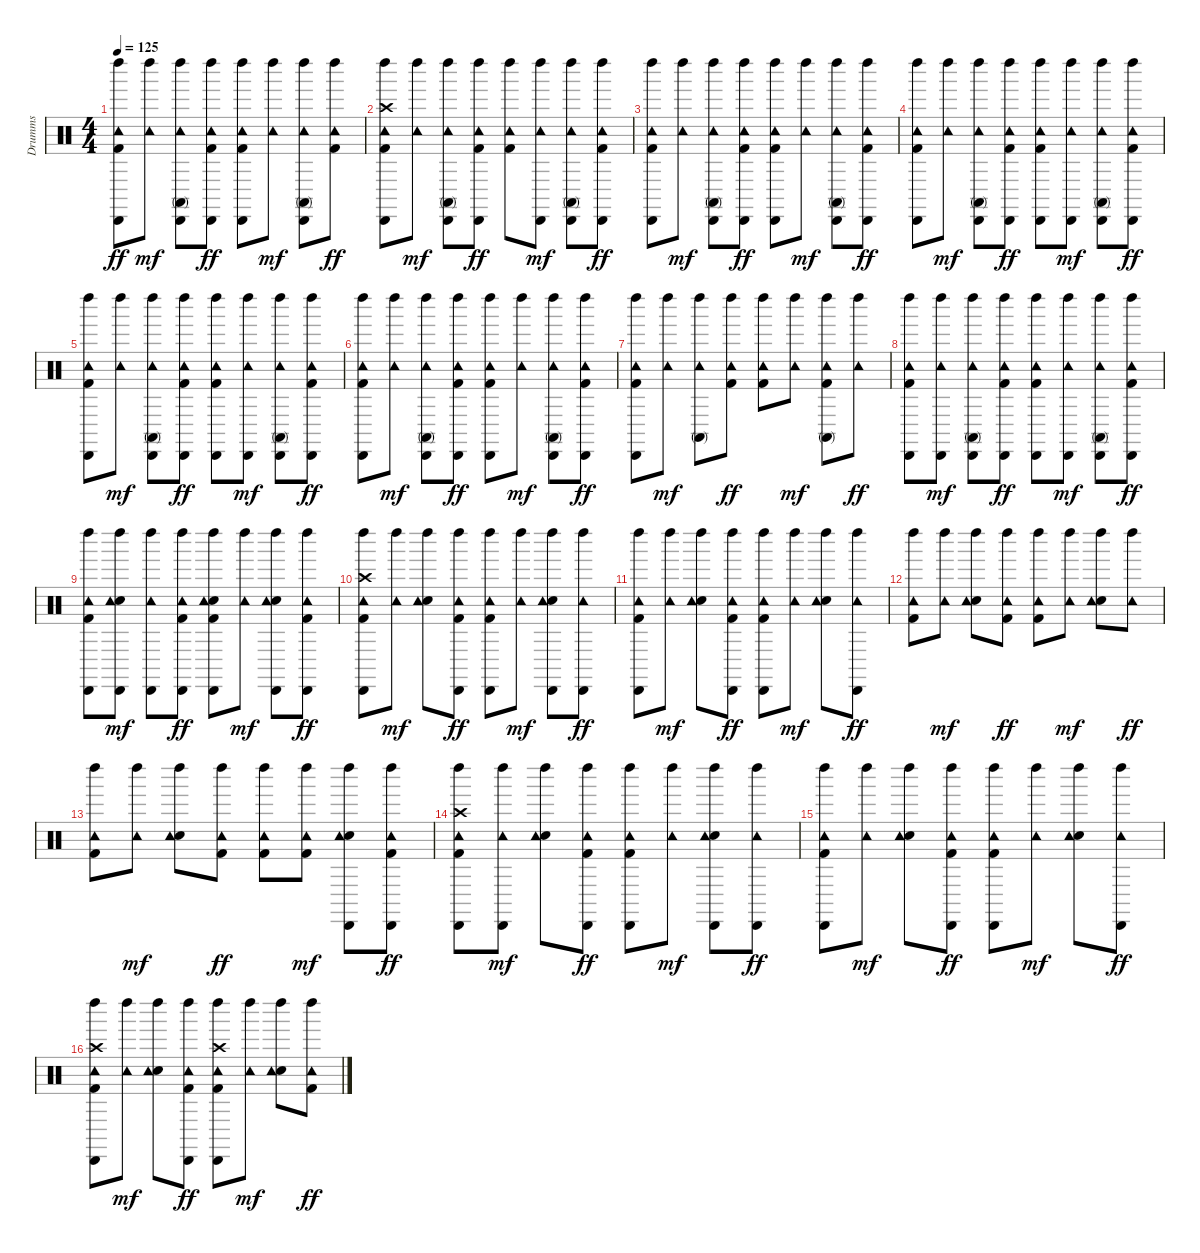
\track ("Drumms" "Drumms") {instrument percussion}
\staff {score}
\articulation defaults
\ts (4 4)
\tempo 125
\clef neutral
\ks c
("Kick (hit) 2" "Tambourine (hit)" "Cabasa (hit)" "Left Maraca (hit)").8{dy ff} ("Tambourine (hit)" "Left Maraca (hit)").8{dy mf} ("Conga high (mute)" "Tambourine (hit)" "Cabasa (hit)" "Left Maraca (hit)").8 ("Kick (hit) 2" "Tambourine (hit)" "Cabasa (hit)" "Left Maraca (hit)").8{dy ff} ("Kick (hit) 2" "Tambourine (hit)" "Cabasa (hit)" "Left Maraca (hit)").8 ("Tambourine (hit)" "Left Maraca (hit)").8{dy mf} ("Conga high (mute)" "Tambourine (hit)" "Cabasa (hit)" "Left Maraca (hit)").8 ("Tambourine (hit)" "Left Maraca (hit)" "Kick (hit) 2").8{dy ff} |
("Kick (hit) 2" "Crash high (hit)" "Tambourine (hit)" "Cabasa (hit)" "Left Maraca (hit)").8 ("Tambourine (hit)" "Left Maraca (hit)").8{dy mf} ("Conga high (mute)" "Tambourine (hit)" "Cabasa (hit)" "Left Maraca (hit)").8 ("Kick (hit) 2" "Tambourine (hit)" "Cabasa (hit)" "Left Maraca (hit)").8{dy ff} ("Kick (hit) 2" "Tambourine (hit)" "Left Maraca (hit)").8 ("Tambourine (hit)" "Cabasa (hit)" "Left Maraca (hit)").8{dy mf} ("Conga high (mute)" "Tambourine (hit)" "Cabasa (hit)" "Left Maraca (hit)").8 ("Kick (hit) 2" "Tambourine (hit)" "Cabasa (hit)" "Left Maraca (hit)").8{dy ff} |
("Kick (hit) 2" "Tambourine (hit)" "Cabasa (hit)" "Left Maraca (hit)").8 ("Tambourine (hit)" "Left Maraca (hit)").8{dy mf} ("Conga high (mute)" "Tambourine (hit)" "Cabasa (hit)" "Left Maraca (hit)").8 ("Kick (hit) 2" "Tambourine (hit)" "Cabasa (hit)" "Left Maraca (hit)").8{dy ff} ("Kick (hit) 2" "Tambourine (hit)" "Cabasa (hit)" "Left Maraca (hit)").8 ("Tambourine (hit)" "Left Maraca (hit)").8{dy mf} ("Conga high (mute)" "Tambourine (hit)" "Cabasa (hit)" "Left Maraca (hit)").8 ("Kick (hit) 2" "Tambourine (hit)" "Cabasa (hit)" "Left Maraca (hit)").8{dy ff} |
("Kick (hit) 2" "Tambourine (hit)" "Cabasa (hit)" "Left Maraca (hit)").8 ("Tambourine (hit)" "Left Maraca (hit)").8{dy mf} ("Conga high (mute)" "Tambourine (hit)" "Cabasa (hit)" "Left Maraca (hit)").8 ("Kick (hit) 2" "Tambourine (hit)" "Cabasa (hit)" "Left Maraca (hit)").8{dy ff} ("Kick (hit) 2" "Tambourine (hit)" "Cabasa (hit)" "Left Maraca (hit)").8 ("Tambourine (hit)" "Left Maraca (hit)" "Cabasa (hit)").8{dy mf} ("Conga high (mute)" "Tambourine (hit)" "Cabasa (hit)" "Left Maraca (hit)").8 ("Kick (hit) 2" "Tambourine (hit)" "Cabasa (hit)" "Left Maraca (hit)").8{dy ff} |
("Kick (hit) 2" "Tambourine (hit)" "Cabasa (hit)" "Left Maraca (hit)").8 ("Tambourine (hit)" "Left Maraca (hit)").8{dy mf} ("Conga high (mute)" "Tambourine (hit)" "Cabasa (hit)" "Left Maraca (hit)").8 ("Kick (hit) 2" "Tambourine (hit)" "Cabasa (hit)" "Left Maraca (hit)").8{dy ff} ("Kick (hit) 2" "Tambourine (hit)" "Cabasa (hit)" "Left Maraca (hit)").8 ("Tambourine (hit)" "Left Maraca (hit)" "Cabasa (hit)").8{dy mf} ("Conga high (mute)" "Tambourine (hit)" "Cabasa (hit)" "Left Maraca (hit)").8 ("Kick (hit) 2" "Tambourine (hit)" "Cabasa (hit)" "Left Maraca (hit)").8{dy ff} |
("Kick (hit) 2" "Tambourine (hit)" "Cabasa (hit)" "Left Maraca (hit)").8 ("Tambourine (hit)" "Left Maraca (hit)").8{dy mf} ("Conga high (mute)" "Tambourine (hit)" "Cabasa (hit)" "Left Maraca (hit)").8 ("Kick (hit) 2" "Tambourine (hit)" "Cabasa (hit)" "Left Maraca (hit)").8{dy ff} ("Kick (hit) 2" "Tambourine (hit)" "Cabasa (hit)" "Left Maraca (hit)").8 ("Tambourine (hit)" "Left Maraca (hit)").8{dy mf} ("Conga high (mute)" "Tambourine (hit)" "Cabasa (hit)" "Left Maraca (hit)").8 ("Kick (hit) 2" "Tambourine (hit)" "Cabasa (hit)" "Left Maraca (hit)").8{dy ff} |
("Kick (hit) 2" "Tambourine (hit)" "Cabasa (hit)" "Left Maraca (hit)").8 ("Tambourine (hit)" "Left Maraca (hit)").8{dy mf} ("Conga high (mute)" "Tambourine (hit)" "Left Maraca (hit)").8 ("Kick (hit) 2" "Tambourine (hit)" "Left Maraca (hit)").8{dy ff} ("Kick (hit) 2" "Tambourine (hit)" "Left Maraca (hit)").8 ("Tambourine (hit)" "Left Maraca (hit)").8{dy mf} ("Kick (hit) 2" "Conga high (mute)" "Tambourine (hit)" "Left Maraca (hit)").8 ("Tambourine (hit)" "Left Maraca (hit)").8{dy ff} |
("Kick (hit) 2" "Tambourine (hit)" "Cabasa (hit)" "Left Maraca (hit)").8 ("Tambourine (hit)" "Cabasa (hit)" "Left Maraca (hit)").8{dy mf} ("Conga high (mute)" "Tambourine (hit)" "Cabasa (hit)" "Left Maraca (hit)").8 ("Kick (hit) 2" "Tambourine (hit)" "Cabasa (hit)" "Left Maraca (hit)").8{dy ff} ("Kick (hit) 2" "Tambourine (hit)" "Cabasa (hit)" "Left Maraca (hit)").8 ("Tambourine (hit)" "Cabasa (hit)" "Left Maraca (hit)").8{dy mf} ("Conga high (mute)" "Tambourine (hit)" "Cabasa (hit)" "Left Maraca (hit)").8 ("Kick (hit) 2" "Tambourine (hit)" "Cabasa (hit)" "Left Maraca (hit)").8{dy ff} |
("Kick (hit) 2" "Tambourine (hit)" "Cabasa (hit)" "Left Maraca (hit)").8 ("Snare (hit) 2" "Tambourine (hit)" "Cabasa (hit)" "Left Maraca (hit)").8{dy mf} ("Tambourine (hit)" "Cabasa (hit)" "Left Maraca (hit)").8 ("Kick (hit) 2" "Tambourine (hit)" "Cabasa (hit)" "Left Maraca (hit)").8{dy ff} ("Kick (hit) 2" "Snare (hit) 2" "Tambourine (hit)" "Cabasa (hit)" "Left Maraca (hit)").8 ("Tambourine (hit)" "Left Maraca (hit)").8{dy mf} ("Snare (hit) 2" "Tambourine (hit)" "Cabasa (hit)" "Left Maraca (hit)").8 ("Kick (hit) 2" "Tambourine (hit)" "Cabasa (hit)" "Left Maraca (hit)").8{dy ff} |
("Kick (hit) 2" "Crash high (hit)" "Tambourine (hit)" "Cabasa (hit)" "Left Maraca (hit)").8 ("Tambourine (hit)" "Left Maraca (hit)").8{dy mf} ("Snare (hit) 2" "Tambourine (hit)" "Left Maraca (hit)").8 ("Kick (hit) 2" "Tambourine (hit)" "Cabasa (hit)" "Left Maraca (hit)").8{dy ff} ("Kick (hit) 2" "Tambourine (hit)" "Cabasa (hit)" "Left Maraca (hit)").8 ("Tambourine (hit)" "Left Maraca (hit)").8{dy mf} ("Snare (hit) 2" "Tambourine (hit)" "Cabasa (hit)" "Left Maraca (hit)").8 ("Tambourine (hit)" "Cabasa (hit)" "Left Maraca (hit)").8{dy ff} |
("Kick (hit) 2" "Tambourine (hit)" "Cabasa (hit)" "Left Maraca (hit)").8 ("Tambourine (hit)" "Left Maraca (hit)").8{dy mf} ("Snare (hit) 2" "Tambourine (hit)" "Left Maraca (hit)").8 ("Kick (hit) 2" "Tambourine (hit)" "Cabasa (hit)" "Left Maraca (hit)").8{dy ff} ("Kick (hit) 2" "Tambourine (hit)" "Cabasa (hit)" "Left Maraca (hit)").8 ("Tambourine (hit)" "Left Maraca (hit)").8{dy mf} ("Snare (hit) 2" "Tambourine (hit)" "Left Maraca (hit)").8 ("Tambourine (hit)" "Cabasa (hit)" "Left Maraca (hit)").8{dy ff} |
("Kick (hit) 2" "Tambourine (hit)" "Left Maraca (hit)").8 ("Tambourine (hit)" "Left Maraca (hit)").8{dy mf} ("Snare (hit) 2" "Tambourine (hit)" "Left Maraca (hit)").8 ("Kick (hit) 2" "Tambourine (hit)" "Left Maraca (hit)").8{dy ff} ("Kick (hit) 2" "Tambourine (hit)" "Left Maraca (hit)").8 ("Tambourine (hit)" "Left Maraca (hit)").8{dy mf} ("Snare (hit) 2" "Tambourine (hit)" "Left Maraca (hit)").8 ("Tambourine (hit)" "Left Maraca (hit)").8{dy ff} |
("Kick (hit) 2" "Tambourine (hit)" "Left Maraca (hit)").8 ("Tambourine (hit)" "Left Maraca (hit)").8{dy mf} ("Snare (hit) 2" "Tambourine (hit)" "Left Maraca (hit)").8 ("Kick (hit) 2" "Tambourine (hit)" "Left Maraca (hit)").8{dy ff} ("Kick (hit) 2" "Tambourine (hit)" "Left Maraca (hit)").8 ("Kick (hit) 2" "Tambourine (hit)" "Left Maraca (hit)").8{dy mf} ("Snare (hit) 2" "Tambourine (hit)" "Cabasa (hit)" "Left Maraca (hit)").8 ("Kick (hit) 2" "Tambourine (hit)" "Cabasa (hit)" "Left Maraca (hit)").8{dy ff} |
("Kick (hit) 2" "Crash high (hit)" "Tambourine (hit)" "Cabasa (hit)" "Left Maraca (hit)").8 ("Tambourine (hit)" "Cabasa (hit)" "Left Maraca (hit)").8{dy mf} ("Snare (hit) 2" "Tambourine (hit)" "Left Maraca (hit)").8 ("Kick (hit) 2" "Tambourine (hit)" "Cabasa (hit)" "Left Maraca (hit)").8{dy ff} ("Kick (hit) 2" "Tambourine (hit)" "Cabasa (hit)" "Left Maraca (hit)").8 ("Tambourine (hit)" "Left Maraca (hit)").8{dy mf} ("Snare (hit) 2" "Tambourine (hit)" "Cabasa (hit)" "Left Maraca (hit)").8 ("Tambourine (hit)" "Cabasa (hit)" "Left Maraca (hit)").8{dy ff} |
("Kick (hit) 2" "Tambourine (hit)" "Cabasa (hit)" "Left Maraca (hit)").8 ("Tambourine (hit)" "Left Maraca (hit)").8{dy mf} ("Snare (hit) 2" "Tambourine (hit)" "Left Maraca (hit)").8 ("Kick (hit) 2" "Tambourine (hit)" "Cabasa (hit)" "Left Maraca (hit)").8{dy ff} ("Kick (hit) 2" "Tambourine (hit)" "Cabasa (hit)" "Left Maraca (hit)").8 ("Tambourine (hit)" "Left Maraca (hit)").8{dy mf} ("Snare (hit) 2" "Tambourine (hit)" "Left Maraca (hit)").8 ("Tambourine (hit)" "Cabasa (hit)" "Left Maraca (hit)").8{dy ff} |
("Kick (hit) 2" "Crash high (hit)" "Tambourine (hit)" "Cabasa (hit)" "Left Maraca (hit)").8 ("Tambourine (hit)" "Left Maraca (hit)").8{dy mf} ("Snare (hit) 2" "Tambourine (hit)" "Left Maraca (hit)").8 ("Kick (hit) 2" "Tambourine (hit)" "Cabasa (hit)" "Left Maraca (hit)").8{dy ff} ("Kick (hit) 2" "Crash high (hit)" "Tambourine (hit)" "Cabasa (hit)" "Left Maraca (hit)").8 ("Tambourine (hit)" "Left Maraca (hit)").8{dy mf} ("Snare (hit) 2" "Tambourine (hit)" "Left Maraca (hit)").8 ("Kick (hit) 2" "Tambourine (hit)" "Left Maraca (hit)").8{dy ff}
